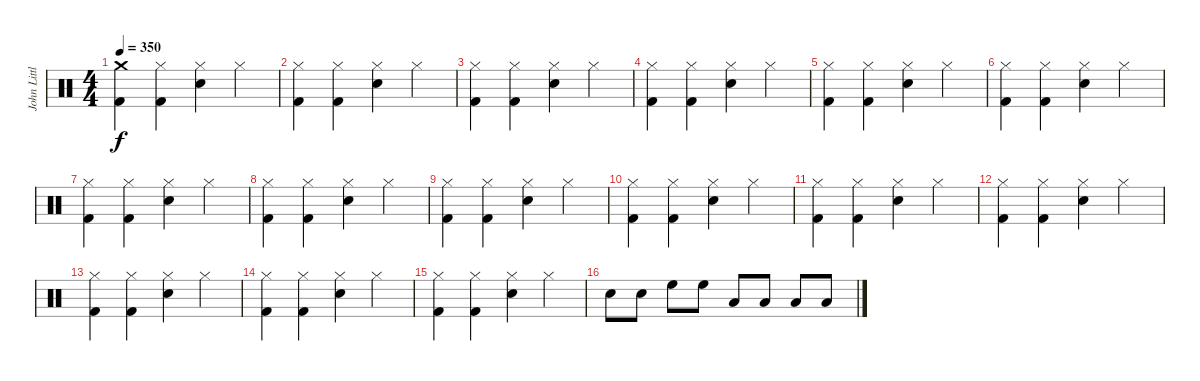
\track ("John Littler - Drums" "John Littl") {instrument percussion}
\staff {score}
\articulation defaults
\ts (4 4)
\tempo 350
\clef neutral
\ks c
("Crash medium (hit)" "Kick (hit) 2").4{dy f} ("Hi-Hat (closed)" "Kick (hit) 2").4 ("Hi-Hat (closed)" "Snare (hit) 2").4 "Hi-Hat (closed)".4 |
("Hi-Hat (closed)" "Kick (hit) 2").4 ("Hi-Hat (closed)" "Kick (hit) 2").4 ("Hi-Hat (closed)" "Snare (hit) 2").4 "Hi-Hat (closed)".4 |
("Hi-Hat (closed)" "Kick (hit) 2").4 ("Hi-Hat (closed)" "Kick (hit) 2").4 ("Hi-Hat (closed)" "Snare (hit) 2").4 "Hi-Hat (closed)".4 |
("Hi-Hat (closed)" "Kick (hit) 2").4 ("Hi-Hat (closed)" "Kick (hit) 2").4 ("Hi-Hat (closed)" "Snare (hit) 2").4 "Hi-Hat (closed)".4 |
("Hi-Hat (closed)" "Kick (hit) 2").4 ("Hi-Hat (closed)" "Kick (hit) 2").4 ("Hi-Hat (closed)" "Snare (hit) 2").4 "Hi-Hat (closed)".4 |
("Hi-Hat (closed)" "Kick (hit) 2").4 ("Hi-Hat (closed)" "Kick (hit) 2").4 ("Hi-Hat (closed)" "Snare (hit) 2").4 "Hi-Hat (closed)".4 |
("Hi-Hat (closed)" "Kick (hit) 2").4 ("Hi-Hat (closed)" "Kick (hit) 2").4 ("Hi-Hat (closed)" "Snare (hit) 2").4 "Hi-Hat (closed)".4 |
("Hi-Hat (closed)" "Kick (hit) 2").4 ("Hi-Hat (closed)" "Kick (hit) 2").4 ("Hi-Hat (closed)" "Snare (hit) 2").4 "Hi-Hat (closed)".4 |
("Hi-Hat (closed)" "Kick (hit) 2").4 ("Hi-Hat (closed)" "Kick (hit) 2").4 ("Hi-Hat (closed)" "Snare (hit) 2").4 "Hi-Hat (closed)".4 |
("Hi-Hat (closed)" "Kick (hit) 2").4 ("Hi-Hat (closed)" "Kick (hit) 2").4 ("Hi-Hat (closed)" "Snare (hit) 2").4 "Hi-Hat (closed)".4 |
("Hi-Hat (closed)" "Kick (hit) 2").4 ("Hi-Hat (closed)" "Kick (hit) 2").4 ("Hi-Hat (closed)" "Snare (hit) 2").4 "Hi-Hat (closed)".4 |
("Hi-Hat (closed)" "Kick (hit) 2").4 ("Hi-Hat (closed)" "Kick (hit) 2").4 ("Hi-Hat (closed)" "Snare (hit) 2").4 "Hi-Hat (closed)".4 |
("Hi-Hat (closed)" "Kick (hit) 2").4 ("Hi-Hat (closed)" "Kick (hit) 2").4 ("Hi-Hat (closed)" "Snare (hit) 2").4 "Hi-Hat (closed)".4 |
("Hi-Hat (closed)" "Kick (hit) 2").4 ("Hi-Hat (closed)" "Kick (hit) 2").4 ("Hi-Hat (closed)" "Snare (hit) 2").4 "Hi-Hat (closed)".4 |
("Hi-Hat (closed)" "Kick (hit) 2").4 ("Hi-Hat (closed)" "Kick (hit) 2").4 ("Hi-Hat (closed)" "Snare (hit) 2").4 "Hi-Hat (closed)".4 |
"Snare (hit) 2".8 "Snare (hit) 2".8 "High Floor Tom (hit)".8 "High Floor Tom (hit)".8 "Low Tom (hit)".8 "Low Tom (hit)".8 "Low Floor Tom (hit)".8 "Low Floor Tom (hit)".8
